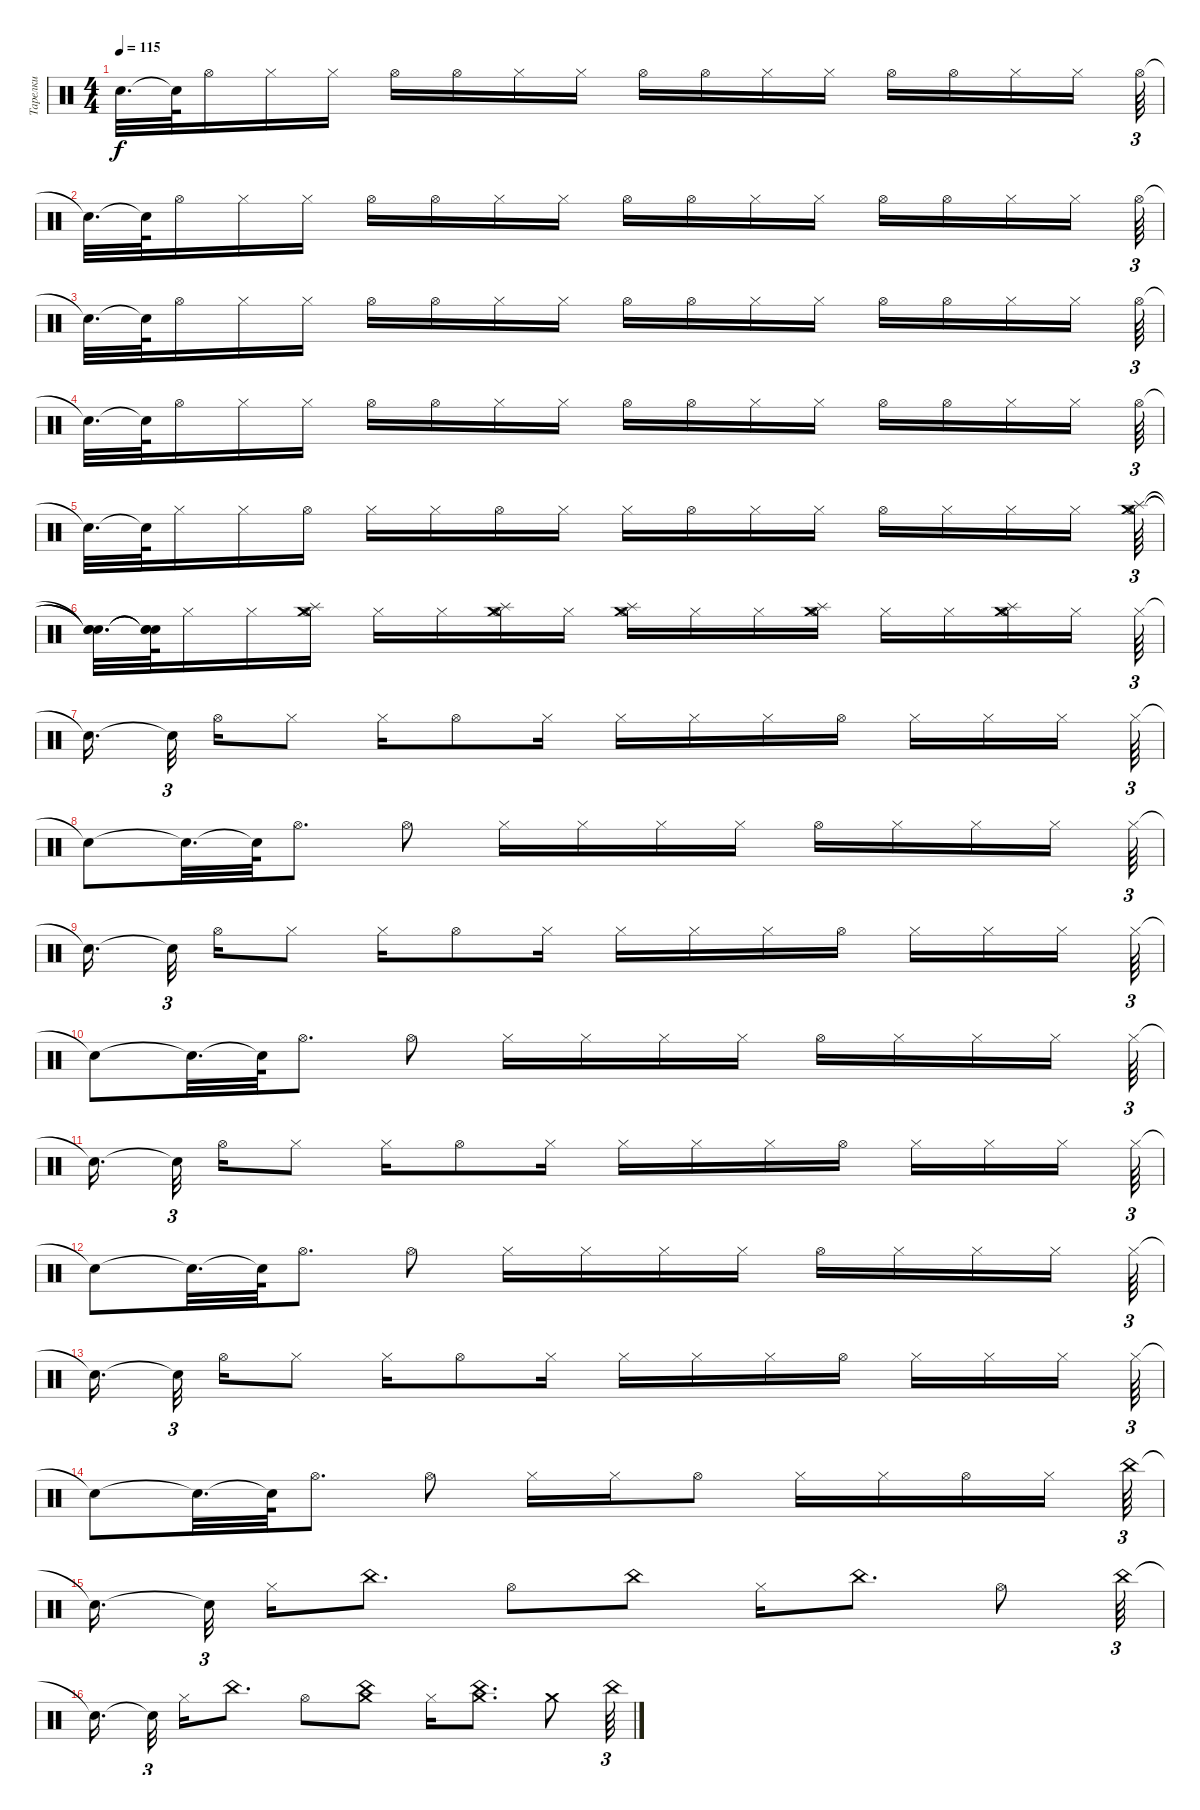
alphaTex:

\track ("Тарелки" "Тарелки") {instrument percussion}
\staff {score}
\articulation defaults
\ts (4 4)
\tempo 115
\clef neutral
\ks c "Snare (hit)"{t}.32{d dy f} "Snare (hit)"{t}.64 "Hi-Hat (open)".16 "Hi-Hat (closed)".16 "Hi-Hat (closed)".16 "Hi-Hat (open)".16 "Hi-Hat (open)".16 "Hi-Hat (closed)".16 "Hi-Hat (closed)".16 "Hi-Hat (open)".16 "Hi-Hat (open)".16 "Hi-Hat (closed)".16 "Hi-Hat (closed)".16 "Hi-Hat (open)".16 "Hi-Hat (open)".16 "Hi-Hat (closed)".16 "Hi-Hat (closed)".16 "Hi-Hat (open)".64{tu (3 2)}
|
"Snare (hit)"{t}.32{d} "Snare (hit)"{t}.64 "Hi-Hat (open)".16 "Hi-Hat (closed)".16 "Hi-Hat (closed)".16 "Hi-Hat (open)".16 "Hi-Hat (open)".16 "Hi-Hat (closed)".16 "Hi-Hat (closed)".16 "Hi-Hat (open)".16 "Hi-Hat (open)".16 "Hi-Hat (closed)".16 "Hi-Hat (closed)".16 "Hi-Hat (open)".16 "Hi-Hat (open)".16 "Hi-Hat (closed)".16 "Hi-Hat (closed)".16 "Hi-Hat (open)".64{tu (3 2)} |
"Snare (hit)"{t}.32{d} "Snare (hit)"{t}.64 "Hi-Hat (open)".16 "Hi-Hat (closed)".16 "Hi-Hat (closed)".16 "Hi-Hat (open)".16 "Hi-Hat (open)".16 "Hi-Hat (closed)".16 "Hi-Hat (closed)".16 "Hi-Hat (open)".16 "Hi-Hat (open)".16 "Hi-Hat (closed)".16 "Hi-Hat (closed)".16 "Hi-Hat (open)".16 "Hi-Hat (open)".16 "Hi-Hat (closed)".16 "Hi-Hat (closed)".16 "Hi-Hat (open)".64{tu (3 2)} |
"Snare (hit)"{t}.32{d} "Snare (hit)"{t}.64 "Hi-Hat (open)".16 "Hi-Hat (closed)".16 "Hi-Hat (closed)".16 "Hi-Hat (open)".16 "Hi-Hat (open)".16 "Hi-Hat (closed)".16 "Hi-Hat (closed)".16 "Hi-Hat (open)".16 "Hi-Hat (open)".16 "Hi-Hat (closed)".16 "Hi-Hat (closed)".16 "Hi-Hat (open)".16 "Hi-Hat (open)".16 "Hi-Hat (closed)".16 "Hi-Hat (closed)".16 "Hi-Hat (open)".64{tu (3 2)} |
"Snare (hit)"{t}.32{d} "Snare (hit)"{t}.64 "Hi-Hat (closed)".16 "Hi-Hat (closed)".16 "Hi-Hat (open)".16 "Hi-Hat (closed)".16 "Hi-Hat (closed)".16 "Hi-Hat (open)".16 "Hi-Hat (closed)".16 "Hi-Hat (closed)".16 "Hi-Hat (open)".16 "Hi-Hat (closed)".16 "Hi-Hat (closed)".16 "Hi-Hat (open)".16 "Hi-Hat (closed)".16 "Hi-Hat (closed)".16 "Hi-Hat (closed)".16 ("Hi-Hat (open)" "Splash (hit)" "Crash medium (hit)").64{tu (3 2)} |
("Snare (hit)"{t} "Snare (hit)"{t} "Snare (hit)"{t}).32{d} ("Snare (hit)"{t} "Snare (hit)"{t} "Snare (hit)"{t}).64 "Hi-Hat (closed)".16 "Hi-Hat (closed)".16 ("Hi-Hat (open)" "Splash (hit)" "Crash medium (hit)").16 "Hi-Hat (closed)".16 "Hi-Hat (closed)".16 ("Hi-Hat (open)" "Splash (hit)" "Crash medium (hit)").16 "Hi-Hat (closed)".16 ("Hi-Hat (open)" "Splash (hit)" "Crash medium (hit)").16 "Hi-Hat (closed)".16 "Hi-Hat (closed)".16 ("Hi-Hat (open)" "Splash (hit)" "Crash medium (hit)").16 "Hi-Hat (closed)".16 "Hi-Hat (closed)".16 ("Hi-Hat (open)" "Splash (hit)" "Crash medium (hit)").16 "Hi-Hat (closed)".16 "Hi-Hat (closed)".64{tu (3 2)} |
"Snare (hit)"{t}.16{d beam splitsecondary} "Snare (hit)"{t}.32{tu (3 2) beam splitsecondary} "Hi-Hat (open)".16 "Hi-Hat (closed)".8 "Hi-Hat (closed)".16 "Hi-Hat (open)".8 "Hi-Hat (closed)".16 "Hi-Hat (closed)".16 "Hi-Hat (closed)".16 "Hi-Hat (closed)".16 "Hi-Hat (open)".16 "Hi-Hat (closed)".16 "Hi-Hat (closed)".16 "Hi-Hat (closed)".16{beam splitsecondary} "Hi-Hat (closed)".64{tu (3 2)} |
"Snare (hit)"{t}.8 "Snare (hit)"{t}.32{d} "Snare (hit)"{t}.64 "Hi-Hat (open)".8{d} "Hi-Hat (open)".8 "Hi-Hat (closed)".16 "Hi-Hat (closed)".16 "Hi-Hat (closed)".16 "Hi-Hat (closed)".16 "Hi-Hat (open)".16 "Hi-Hat (closed)".16 "Hi-Hat (closed)".16 "Hi-Hat (closed)".16 "Hi-Hat (closed)".64{tu (3 2)} |
"Snare (hit)"{t}.16{d beam splitsecondary} "Snare (hit)"{t}.32{tu (3 2) beam splitsecondary} "Hi-Hat (open)".16 "Hi-Hat (closed)".8 "Hi-Hat (closed)".16 "Hi-Hat (open)".8 "Hi-Hat (closed)".16 "Hi-Hat (closed)".16 "Hi-Hat (closed)".16 "Hi-Hat (closed)".16 "Hi-Hat (open)".16 "Hi-Hat (closed)".16 "Hi-Hat (closed)".16 "Hi-Hat (closed)".16{beam splitsecondary} "Hi-Hat (closed)".64{tu (3 2)} |
"Snare (hit)"{t}.8 "Snare (hit)"{t}.32{d} "Snare (hit)"{t}.64 "Hi-Hat (open)".8{d} "Hi-Hat (open)".8 "Hi-Hat (closed)".16 "Hi-Hat (closed)".16 "Hi-Hat (closed)".16 "Hi-Hat (closed)".16 "Hi-Hat (open)".16 "Hi-Hat (closed)".16 "Hi-Hat (closed)".16 "Hi-Hat (closed)".16 "Hi-Hat (closed)".64{tu (3 2)} |
"Snare (hit)"{t}.16{d beam splitsecondary} "Snare (hit)"{t}.32{tu (3 2) beam splitsecondary} "Hi-Hat (open)".16 "Hi-Hat (closed)".8 "Hi-Hat (closed)".16 "Hi-Hat (open)".8 "Hi-Hat (closed)".16 "Hi-Hat (closed)".16 "Hi-Hat (closed)".16 "Hi-Hat (closed)".16 "Hi-Hat (open)".16 "Hi-Hat (closed)".16 "Hi-Hat (closed)".16 "Hi-Hat (closed)".16{beam splitsecondary} "Hi-Hat (closed)".64{tu (3 2)} |
"Snare (hit)"{t}.8 "Snare (hit)"{t}.32{d} "Snare (hit)"{t}.64 "Hi-Hat (open)".8{d} "Hi-Hat (open)".8 "Hi-Hat (closed)".16 "Hi-Hat (closed)".16 "Hi-Hat (closed)".16 "Hi-Hat (closed)".16 "Hi-Hat (open)".16 "Hi-Hat (closed)".16 "Hi-Hat (closed)".16 "Hi-Hat (closed)".16 "Hi-Hat (closed)".64{tu (3 2)} |
"Snare (hit)"{t}.16{d beam splitsecondary} "Snare (hit)"{t}.32{tu (3 2) beam splitsecondary} "Hi-Hat (open)".16 "Hi-Hat (closed)".8 "Hi-Hat (closed)".16 "Hi-Hat (open)".8 "Hi-Hat (closed)".16 "Hi-Hat (closed)".16 "Hi-Hat (closed)".16 "Hi-Hat (closed)".16 "Hi-Hat (open)".16 "Hi-Hat (closed)".16 "Hi-Hat (closed)".16 "Hi-Hat (closed)".16{beam splitsecondary} "Hi-Hat (closed)".64{tu (3 2)} |
"Snare (hit)"{t}.8 "Snare (hit)"{t}.32{d} "Snare (hit)"{t}.64 "Hi-Hat (open)".8{d} "Hi-Hat (open)".8 "Hi-Hat (closed)".16 "Hi-Hat (closed)".16 "Hi-Hat (open)".8 "Hi-Hat (closed)".16 "Hi-Hat (closed)".16 "Hi-Hat (open)".16 "Hi-Hat (closed)".16 "China (hit)".64{tu (3 2)} |
"Snare (hit)"{t}.16{d beam splitsecondary} "Snare (hit)"{t}.32{tu (3 2) beam splitsecondary} "Hi-Hat (closed)".16 "China (hit)".8{d} "Hi-Hat (open)".8 "China (hit)".8 "Hi-Hat (closed)".16 "China (hit)".8{d} "Hi-Hat (open)".8 "China (hit)".64{tu (3 2)} |
"Snare (hit)"{t}.16{d beam splitsecondary} "Snare (hit)"{t}.32{tu (3 2) beam splitsecondary} "Hi-Hat (closed)".16 "China (hit)".8{d} "Hi-Hat (open)".8 ("China (hit)" "Crash medium (hit)").8 "Hi-Hat (closed)".16 ("China (hit)" "Crash medium (hit)").8{d} "Crash medium (hit)".8 "China (hit)".64{tu (3 2)}
